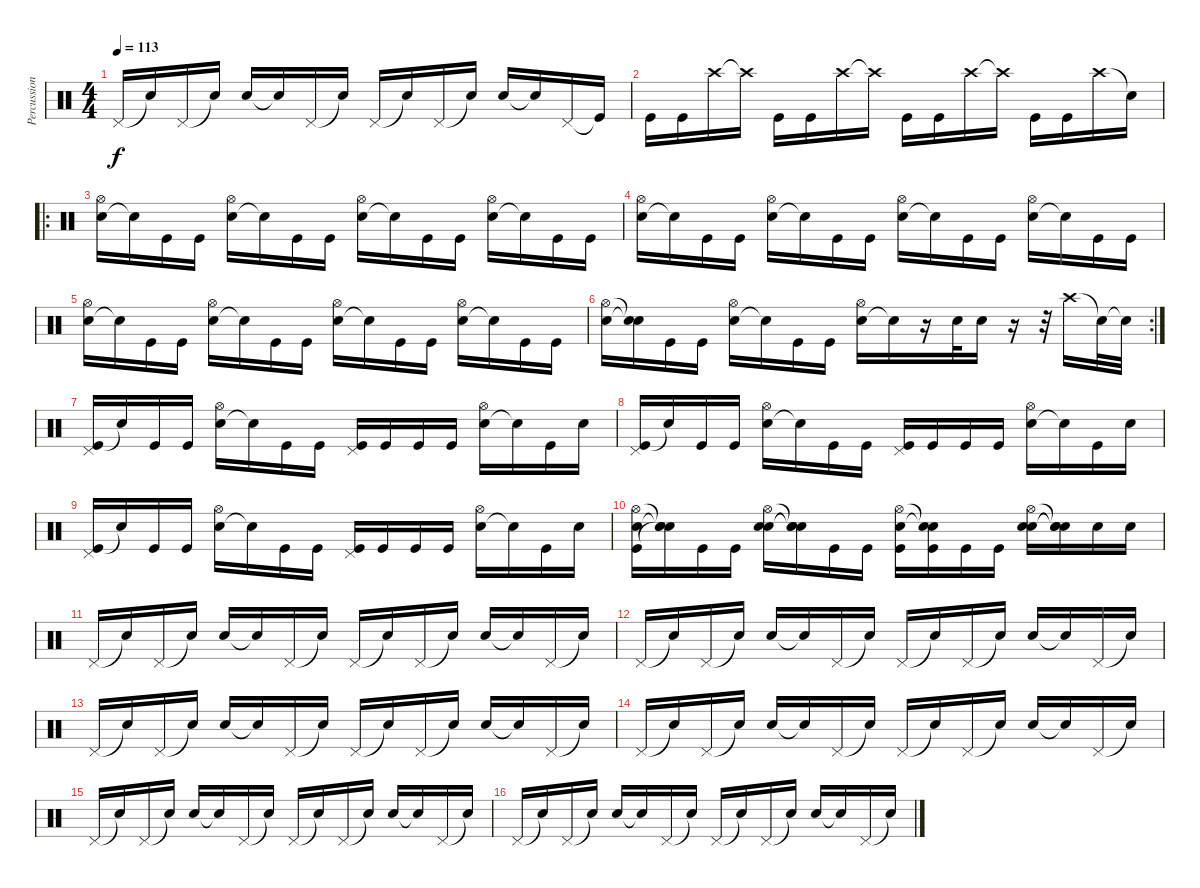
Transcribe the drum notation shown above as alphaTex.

\track ("Percussions" "Percussion") {instrument percussion}
\staff {score}
\articulation defaults
\ts (4 4)
\tempo 113
\clef neutral
\ks c "Pedal Hi-Hat (hit)".16{dy f} "Snare (hit)"{t}.16 "Pedal Hi-Hat (hit)".16 "Snare (hit)"{t}.16 "Snare (hit) 2".16 "Snare (hit)"{t}.16 "Pedal Hi-Hat (hit)".16 "Snare (hit)"{t}.16 "Pedal Hi-Hat (hit)".16 "Snare (hit)"{t}.16 "Pedal Hi-Hat (hit)".16 "Snare (hit)"{t}.16 "Snare (hit) 2".16 "Snare (hit)"{t}.16 "Pedal Hi-Hat (hit)".16 "Kick (hit)"{t}.16
|
"Kick (hit)".16 "Kick (hit)".16 "Crash high (hit)".16 "Crash high (hit)"{t}.16 "Kick (hit)".16 "Kick (hit)".16 "Crash high (hit)".16 "Crash high (hit)"{t}.16 "Kick (hit)".16 "Kick (hit)".16 "Crash high (hit)".16 "Crash high (hit)"{t}.16 "Kick (hit)".16 "Kick (hit)".16 "Crash high (hit)".16 "Snare (hit)"{t}.16 |
\ro
("Electric Snare (hit)" "Hi-Hat (open)").16 "Snare (hit)"{t}.16 "Kick (hit)".16 "Kick (hit)".16 ("Electric Snare (hit)" "Hi-Hat (open)").16 "Snare (hit)"{t}.16 "Kick (hit)".16 "Kick (hit)".16 ("Electric Snare (hit)" "Hi-Hat (open)").16 "Snare (hit)"{t}.16 "Kick (hit)".16 "Kick (hit)".16 ("Electric Snare (hit)" "Hi-Hat (open)").16 "Snare (hit)"{t}.16 "Kick (hit)".16 "Kick (hit)".16 |
("Electric Snare (hit)" "Hi-Hat (open)").16 "Snare (hit)"{t}.16 "Kick (hit)".16 "Kick (hit)".16 ("Electric Snare (hit)" "Hi-Hat (open)").16 "Snare (hit)"{t}.16 "Kick (hit)".16 "Kick (hit)".16 ("Electric Snare (hit)" "Hi-Hat (open)").16 "Snare (hit)"{t}.16 "Kick (hit)".16 "Kick (hit)".16 ("Electric Snare (hit)" "Hi-Hat (open)").16 "Snare (hit)"{t}.16 "Kick (hit)".16 "Kick (hit)".16 |
("Electric Snare (hit)" "Hi-Hat (open)").16 "Snare (hit)"{t}.16 "Kick (hit)".16 "Kick (hit)".16 ("Electric Snare (hit)" "Hi-Hat (open)").16 "Snare (hit)"{t}.16 "Kick (hit)".16 "Kick (hit)".16 ("Electric Snare (hit)" "Hi-Hat (open)").16 "Snare (hit)"{t}.16 "Kick (hit)".16 "Kick (hit)".16 ("Electric Snare (hit)" "Hi-Hat (open)").16 "Snare (hit)"{t}.16 "Kick (hit)".16 "Kick (hit)".16 |
\rc 2
("Electric Snare (hit)" "Hi-Hat (open)").16 ("Snare (hit)"{t} "Snare (hit)"{t}).16 "Kick (hit)".16 "Kick (hit)".16 ("Snare (hit) 2" "Hi-Hat (open)").16 "Snare (hit)"{t}.16 "Kick (hit)".16 "Kick (hit)".16 ("Snare (hit) 2" "Hi-Hat (open)").16 "Snare (hit)"{t}.16 r.16 "Snare (hit) 2".32 "Snare (hit) 2".16 r.16 r.32 "Crash high (hit)".16 "Snare (hit)"{t}.32 "Snare (hit)"{t}.32 |
("Kick (hit)" "Pedal Hi-Hat (hit)").16 "Snare (hit)"{t}.16 "Kick (hit)".16 "Kick (hit)".16 ("Snare (hit) 2" "Hi-Hat (open)").16 "Snare (hit)"{t}.16 "Kick (hit)".16 "Kick (hit)".16 ("Kick (hit)" "Pedal Hi-Hat (hit)").16 "Kick (hit)".16 "Kick (hit)".16 "Kick (hit)".16 ("Snare (hit) 2" "Hi-Hat (open)").16 "Snare (hit)"{t}.16 "Kick (hit)".16 "Snare (hit) 2".16 |
("Kick (hit)" "Pedal Hi-Hat (hit)").16 "Snare (hit)"{t}.16 "Kick (hit)".16 "Kick (hit)".16 ("Snare (hit) 2" "Hi-Hat (open)").16 "Snare (hit)"{t}.16 "Kick (hit)".16 "Kick (hit)".16 ("Kick (hit)" "Pedal Hi-Hat (hit)").16 "Kick (hit)".16 "Kick (hit)".16 "Kick (hit)".16 ("Snare (hit) 2" "Hi-Hat (open)").16 "Snare (hit)"{t}.16 "Kick (hit)".16 "Snare (hit) 2".16 |
("Kick (hit)" "Pedal Hi-Hat (hit)").16 "Snare (hit)"{t}.16 "Kick (hit)".16 "Kick (hit)".16 ("Snare (hit) 2" "Hi-Hat (open)").16 "Snare (hit)"{t}.16 "Kick (hit)".16 "Kick (hit)".16 ("Kick (hit)" "Pedal Hi-Hat (hit)").16 "Kick (hit)".16 "Kick (hit)".16 "Kick (hit)".16 ("Snare (hit) 2" "Hi-Hat (open)").16 "Snare (hit)"{t}.16 "Kick (hit)".16 "Snare (hit) 2".16 |
("Kick (hit)" "Electric Snare (hit)" "Hi-Hat (open)").16 ("Snare (hit)"{t} "Snare (hit)"{t} "Snare (hit)"{t}).16 "Kick (hit)".16 "Kick (hit)".16 ("Snare (hit) 2" "Electric Snare (hit)" "Hi-Hat (open)").16 ("Snare (hit)"{t} "Snare (hit)"{t} "Snare (hit)"{t}).16 "Kick (hit)".16 "Kick (hit)".16 ("Kick (hit)" "Electric Snare (hit)" "Hi-Hat (open)").16 ("Kick (hit)" "Snare (hit)"{t} "Snare (hit)"{t}).16 "Kick (hit)".16 "Kick (hit)".16 ("Snare (hit) 2" "Electric Snare (hit)" "Hi-Hat (open)").16 ("Snare (hit)"{t} "Snare (hit)"{t} "Snare (hit)"{t}).16 "Electric Snare (hit)".16 "Electric Snare (hit)".16 |
"Pedal Hi-Hat (hit)".16 "Snare (hit)"{t}.16 "Pedal Hi-Hat (hit)".16 "Snare (hit)"{t}.16 "Snare (hit) 2".16 "Snare (hit)"{t}.16 "Pedal Hi-Hat (hit)".16 "Snare (hit)"{t}.16 "Pedal Hi-Hat (hit)".16 "Snare (hit)"{t}.16 "Pedal Hi-Hat (hit)".16 "Snare (hit)"{t}.16 "Snare (hit) 2".16 "Snare (hit)"{t}.16 "Pedal Hi-Hat (hit)".16 "Snare (hit)"{t}.16 |
"Pedal Hi-Hat (hit)".16 "Snare (hit)"{t}.16 "Pedal Hi-Hat (hit)".16 "Snare (hit)"{t}.16 "Snare (hit) 2".16 "Snare (hit)"{t}.16 "Pedal Hi-Hat (hit)".16 "Snare (hit)"{t}.16 "Pedal Hi-Hat (hit)".16 "Snare (hit)"{t}.16 "Pedal Hi-Hat (hit)".16 "Snare (hit)"{t}.16 "Snare (hit) 2".16 "Snare (hit)"{t}.16 "Pedal Hi-Hat (hit)".16 "Snare (hit)"{t}.16 |
"Pedal Hi-Hat (hit)".16 "Snare (hit)"{t}.16 "Pedal Hi-Hat (hit)".16 "Snare (hit)"{t}.16 "Snare (hit) 2".16 "Snare (hit)"{t}.16 "Pedal Hi-Hat (hit)".16 "Snare (hit)"{t}.16 "Pedal Hi-Hat (hit)".16 "Snare (hit)"{t}.16 "Pedal Hi-Hat (hit)".16 "Snare (hit)"{t}.16 "Snare (hit) 2".16 "Snare (hit)"{t}.16 "Pedal Hi-Hat (hit)".16 "Snare (hit)"{t}.16 |
"Pedal Hi-Hat (hit)".16 "Snare (hit)"{t}.16 "Pedal Hi-Hat (hit)".16 "Snare (hit)"{t}.16 "Snare (hit) 2".16 "Snare (hit)"{t}.16 "Pedal Hi-Hat (hit)".16 "Snare (hit)"{t}.16 "Pedal Hi-Hat (hit)".16 "Snare (hit)"{t}.16 "Pedal Hi-Hat (hit)".16 "Snare (hit)"{t}.16 "Snare (hit) 2".16 "Snare (hit)"{t}.16 "Pedal Hi-Hat (hit)".16 "Snare (hit)"{t}.16 |
"Pedal Hi-Hat (hit)".16 "Snare (hit)"{t}.16 "Pedal Hi-Hat (hit)".16 "Snare (hit)"{t}.16 "Snare (hit) 2".16 "Snare (hit)"{t}.16 "Pedal Hi-Hat (hit)".16 "Snare (hit)"{t}.16 "Pedal Hi-Hat (hit)".16 "Snare (hit)"{t}.16 "Pedal Hi-Hat (hit)".16 "Snare (hit)"{t}.16 "Snare (hit) 2".16 "Snare (hit)"{t}.16 "Pedal Hi-Hat (hit)".16 "Snare (hit)"{t}.16 |
"Pedal Hi-Hat (hit)".16 "Snare (hit)"{t}.16 "Pedal Hi-Hat (hit)".16 "Snare (hit)"{t}.16 "Snare (hit) 2".16 "Snare (hit)"{t}.16 "Pedal Hi-Hat (hit)".16 "Snare (hit)"{t}.16 "Pedal Hi-Hat (hit)".16 "Snare (hit)"{t}.16 "Pedal Hi-Hat (hit)".16 "Snare (hit)"{t}.16 "Snare (hit) 2".16 "Snare (hit)"{t}.16 "Pedal Hi-Hat (hit)".16 "Snare (hit)"{t}.16
